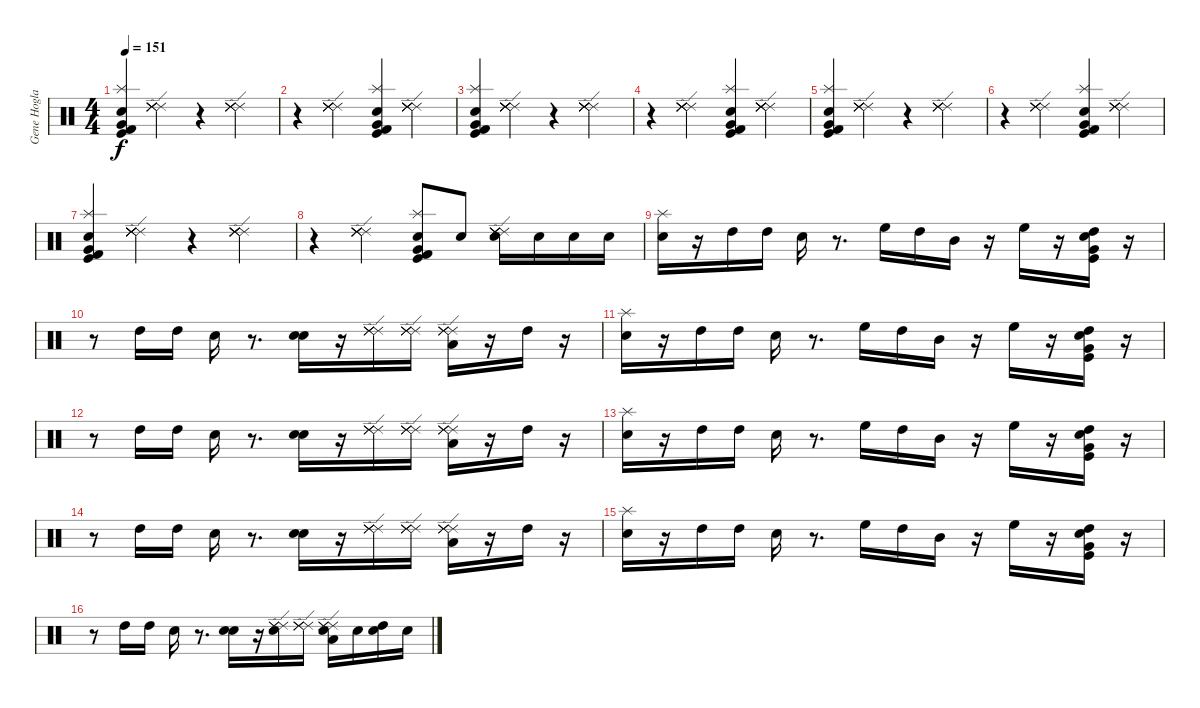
\track ("Gene Hoglan" "Gene Hogla") {instrument percussion}
\staff {score}
\articulation defaults
\ts (4 4)
\tempo 151
\clef neutral
\ks c
("Kick (hit) 2" "Very Low Tom (hit)" "Kick (hit)" "Splash (hit)" "Snare (hit) 2").4{dy f} ("Ride (edge) 2" "Ride (edge) 2" "Ride (edge) 2" "Ride (edge) 2" "Ride (edge) 2").4 r.4 ("Ride (edge) 2" "Ride (edge) 2" "Ride (edge) 2" "Ride (edge) 2" "Ride (edge) 2").4 |
r.4 ("Ride (edge) 2" "Ride (edge) 2" "Ride (edge) 2" "Ride (edge) 2" "Ride (edge) 2").4 ("Kick (hit) 2" "Very Low Tom (hit)" "Kick (hit)" "Snare (hit) 2" "Splash (hit)").4 ("Ride (edge) 2" "Ride (edge) 2" "Ride (edge) 2" "Ride (edge) 2" "Ride (edge) 2").4 |
("Very Low Tom (hit)" "Kick (hit) 2" "Splash (hit)" "Snare (hit) 2" "Kick (hit)").4 ("Ride (edge) 2" "Ride (edge) 2" "Ride (edge) 2" "Ride (edge) 2" "Ride (edge) 2" "Ride (edge) 2").4 r.4 ("Ride (edge) 2" "Ride (edge) 2" "Ride (edge) 2" "Ride (edge) 2" "Ride (edge) 2" "Ride (edge) 2").4 |
r.4 ("Ride (edge) 2" "Ride (edge) 2" "Ride (edge) 2" "Ride (edge) 2" "Ride (edge) 2" "Ride (edge) 2").4 ("Kick (hit) 2" "Very Low Tom (hit)" "Kick (hit)" "Snare (hit) 2" "Splash (hit)").4 ("Ride (edge) 2" "Ride (edge) 2" "Ride (edge) 2" "Ride (edge) 2" "Ride (edge) 2" "Ride (edge) 2").4 |
("Kick (hit) 2" "Very Low Tom (hit)" "Kick (hit)" "Splash (hit)" "Snare (hit) 2").4 ("Ride (edge) 2" "Ride (edge) 2" "Ride (edge) 2" "Ride (edge) 2" "Ride (edge) 2").4 r.4 ("Ride (edge) 2" "Ride (edge) 2" "Ride (edge) 2" "Ride (edge) 2" "Ride (edge) 2").4 |
r.4 ("Ride (edge) 2" "Ride (edge) 2" "Ride (edge) 2" "Ride (edge) 2" "Ride (edge) 2").4 ("Kick (hit) 2" "Very Low Tom (hit)" "Kick (hit)" "Snare (hit) 2" "Splash (hit)").4 ("Ride (edge) 2" "Ride (edge) 2" "Ride (edge) 2" "Ride (edge) 2" "Ride (edge) 2").4 |
("Very Low Tom (hit)" "Kick (hit) 2" "Splash (hit)" "Snare (hit) 2" "Kick (hit)").4 ("Ride (edge) 2" "Ride (edge) 2" "Ride (edge) 2" "Ride (edge) 2" "Ride (edge) 2" "Ride (edge) 2").4 r.4 ("Ride (edge) 2" "Ride (edge) 2" "Ride (edge) 2" "Ride (edge) 2" "Ride (edge) 2" "Ride (edge) 2").4 |
r.4 ("Ride (edge) 2" "Ride (edge) 2" "Ride (edge) 2" "Ride (edge) 2" "Ride (edge) 2" "Ride (edge) 2").4 ("Kick (hit) 2" "Very Low Tom (hit)" "Kick (hit)" "Snare (hit) 2" "Splash (hit)").8 "Snare (hit) 2".8 ("Ride (edge) 2" "Ride (edge) 2" "Ride (edge) 2" "Snare (hit) 2" "Ride (edge) 2" "Ride (edge) 2").16 "Snare (hit) 2".16 "Snare (hit) 2".16 "Snare (hit) 2".16 |
("Snare (hit) 2" "Splash (hit)").16 r.16 "High Tom (hit)".16 "High Tom (hit)".16 "Electric Snare (hit)".16 r.8{d} "High Floor Tom (hit)".16 "High Tom (hit)".16 "Mid Tom (hit)".16 r.16 "High Floor Tom (hit)".16 r.16 ("Electric Snare (hit)" "Very Low Tom (hit)" "High Tom (hit)" "Kick (hit)").16 r.16 |
r.8 "High Tom (hit)".16 "High Tom (hit)".16 "Electric Snare (hit)".16 r.8{d} ("Snare (hit) 2" "Electric Snare (hit)").16 r.16 ("Ride (edge) 2" "Ride (edge) 2" "Ride (edge) 2" "Ride (edge) 2").16 ("Ride (edge) 2" "Ride (edge) 2" "Ride (edge) 2" "Ride (edge) 2").16 ("Ride (edge) 2" "Ride (edge) 2" "Ride (edge) 2" "Ride (edge) 2" "Low Tom (hit)").16 r.16 "High Tom (hit)".16 r.16 |
("Snare (hit) 2" "Splash (hit)").16 r.16 "High Tom (hit)".16 "High Tom (hit)".16 "Electric Snare (hit)".16 r.8{d} "High Floor Tom (hit)".16 "High Tom (hit)".16 "Mid Tom (hit)".16 r.16 "High Floor Tom (hit)".16 r.16 ("Electric Snare (hit)" "Very Low Tom (hit)" "High Tom (hit)" "Kick (hit)").16 r.16 |
r.8 "High Tom (hit)".16 "High Tom (hit)".16 "Electric Snare (hit)".16 r.8{d} ("Snare (hit) 2" "Electric Snare (hit)").16 r.16 ("Ride (edge) 2" "Ride (edge) 2" "Ride (edge) 2" "Ride (edge) 2").16 ("Ride (edge) 2" "Ride (edge) 2" "Ride (edge) 2" "Ride (edge) 2").16 ("Ride (edge) 2" "Ride (edge) 2" "Ride (edge) 2" "Ride (edge) 2" "Low Tom (hit)").16 r.16 "High Tom (hit)".16 r.16 |
("Snare (hit) 2" "Splash (hit)").16 r.16 "High Tom (hit)".16 "High Tom (hit)".16 "Electric Snare (hit)".16 r.8{d} "High Floor Tom (hit)".16 "High Tom (hit)".16 "Mid Tom (hit)".16 r.16 "High Floor Tom (hit)".16 r.16 ("Electric Snare (hit)" "Very Low Tom (hit)" "High Tom (hit)" "Kick (hit)").16 r.16 |
r.8 "High Tom (hit)".16 "High Tom (hit)".16 "Electric Snare (hit)".16 r.8{d} ("Snare (hit) 2" "Electric Snare (hit)").16 r.16 ("Ride (edge) 2" "Ride (edge) 2" "Ride (edge) 2" "Ride (edge) 2").16 ("Ride (edge) 2" "Ride (edge) 2" "Ride (edge) 2" "Ride (edge) 2").16 ("Ride (edge) 2" "Ride (edge) 2" "Ride (edge) 2" "Ride (edge) 2" "Low Tom (hit)").16 r.16 "High Tom (hit)".16 r.16 |
("Snare (hit) 2" "Splash (hit)").16 r.16 "High Tom (hit)".16 "High Tom (hit)".16 "Electric Snare (hit)".16 r.8{d} "High Floor Tom (hit)".16 "High Tom (hit)".16 "Mid Tom (hit)".16 r.16 "High Floor Tom (hit)".16 r.16 ("Electric Snare (hit)" "Very Low Tom (hit)" "High Tom (hit)" "Kick (hit)").16 r.16 |
r.8 "High Tom (hit)".16 "High Tom (hit)".16 "Electric Snare (hit)".16 r.8{d} ("Snare (hit) 2" "Electric Snare (hit)").16 r.16 ("Ride (edge) 2" "Ride (edge) 2" "Ride (edge) 2" "Electric Snare (hit)").16 ("Ride (edge) 2" "Ride (edge) 2" "Ride (edge) 2" "Ride (edge) 2").16 ("Ride (edge) 2" "Ride (edge) 2" "Ride (edge) 2" "Electric Snare (hit)" "Low Tom (hit)").16 "Electric Snare (hit)".16 ("High Tom (hit)" "Electric Snare (hit)").16 "Electric Snare (hit)".16
